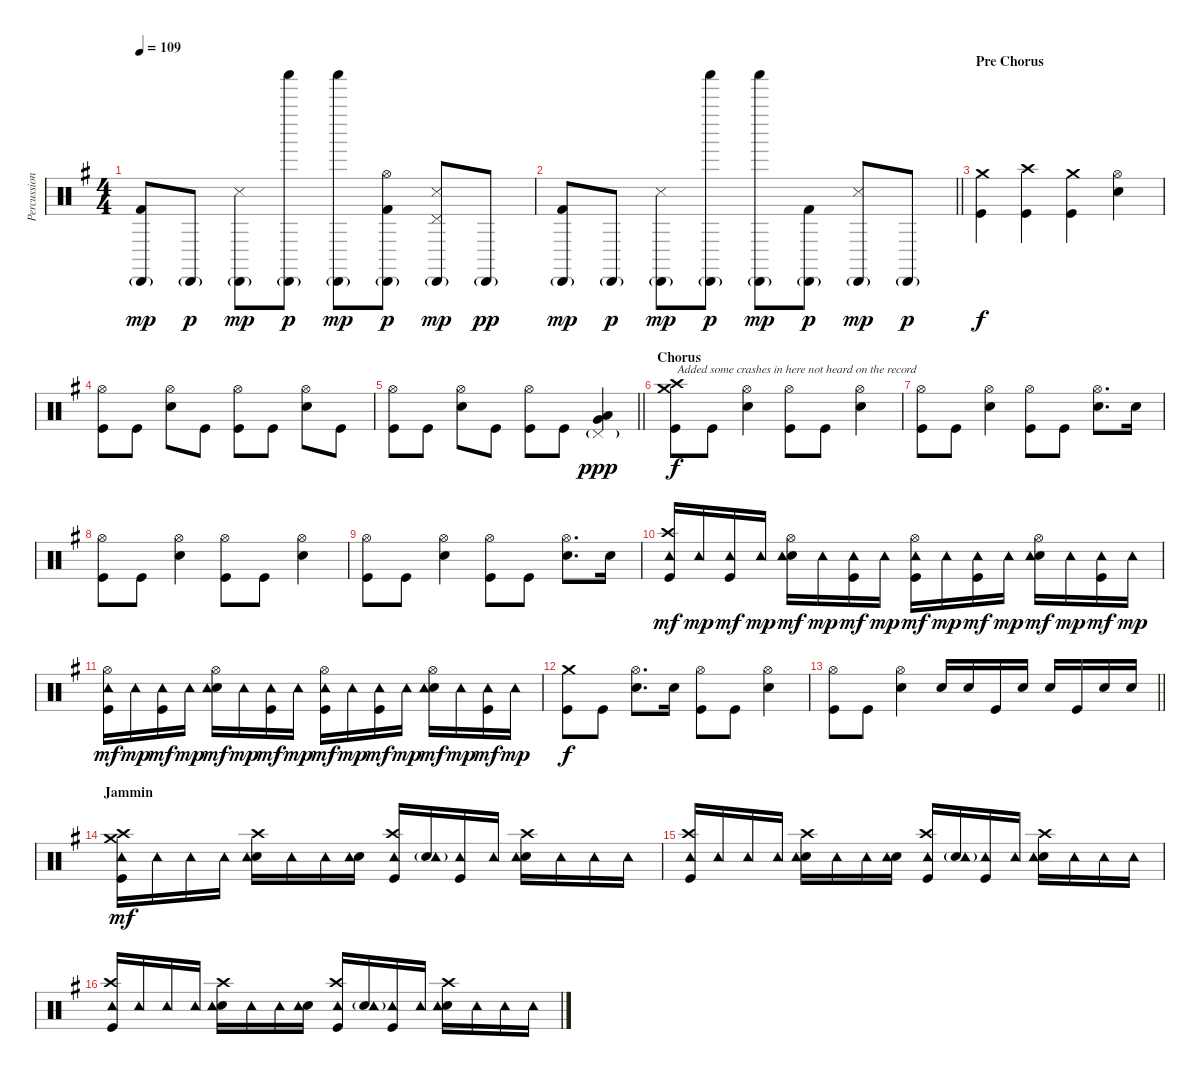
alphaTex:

\track ("Percussion" "Percussion") {instrument percussion}
\staff {score}
\articulation defaults
\ts (4 4)
\tempo 109
\clef neutral
\ks g
("Cabasa (hit)"{g} "Kick (hit) 2").8{dy mp} "Cabasa (hit)"{g}.8{dy p} ("Snare (side stick) 3" "Cabasa (hit)"{g}).8{dy mp} ("Shaker (hit)" "Cabasa (hit)"{g}).8{dy p} ("Shaker (hit)" "Cabasa (hit)"{g}).8{dy mp} ("Hi-Hat (open)" "Cabasa (hit)"{g} "Kick (hit) 2").8{dy p} ("Snare (side stick) 3" "Pedal Hi-Hat (hit)" "Cabasa (hit)"{g}).8{dy mp} "Cabasa (hit)"{g}.8{dy pp} |
\barLineRight lightlight
("Cabasa (hit)"{g} "Kick (hit) 2").8{dy mp} "Cabasa (hit)"{g}.8{dy p} ("Snare (side stick) 3" "Cabasa (hit)"{g}).8{dy mp} ("Shaker (hit)" "Cabasa (hit)"{g}).8{dy p} ("Shaker (hit)" "Cabasa (hit)"{g}).8{dy mp} ("Cabasa (hit)"{g} "Kick (hit) 2").8{dy p} ("Snare (side stick) 3" "Cabasa (hit)"{g}).8{dy mp} "Cabasa (hit)"{g}.8{dy p} |
\section ("" "Pre Chorus")
("Crash medium (hit)" "Kick (hit)").4{dy f} ("Crash high (hit)" "Kick (hit)").4 ("Crash medium (hit)" "Kick (hit)").4 ("Hi-Hat (open)" "Electric Snare (hit)").4 |
("Hi-Hat (open)" "Kick (hit)").8 "Kick (hit)".8 ("Hi-Hat (open)" "Electric Snare (hit)").8 "Kick (hit)".8 ("Hi-Hat (open)" "Kick (hit)").8 "Kick (hit)".8 ("Hi-Hat (open)" "Electric Snare (hit)").8 "Kick (hit)".8 |
\barLineRight lightlight
("Hi-Hat (open)" "Kick (hit)").8 "Kick (hit)".8 ("Hi-Hat (open)" "Electric Snare (hit)").8 "Kick (hit)".8 ("Hi-Hat (open)" "Kick (hit)").8 "Kick (hit)".8 ("Pedal Hi-Hat (hit)"{g} "Low Tom (hit)" "Very Low Tom (hit)").4{dy ppp} |
\section ("" "Chorus")
("Crash high (hit)" "Crash medium (hit)" "Kick (hit)").8{txt "Added some crashes in here not heard on the record" dy f} "Kick (hit)".8 ("Hi-Hat (open)" "Electric Snare (hit)").4 ("Hi-Hat (open)" "Kick (hit)").8 "Kick (hit)".8 ("Hi-Hat (open)" "Electric Snare (hit)").4 |
("Hi-Hat (open)" "Kick (hit)").8 "Kick (hit)".8 ("Hi-Hat (open)" "Electric Snare (hit)").4 ("Hi-Hat (open)" "Kick (hit)").8 "Kick (hit)".8 ("Hi-Hat (open)" "Electric Snare (hit)").8{d} "Electric Snare (hit)".16 |
("Hi-Hat (open)" "Kick (hit)").8 "Kick (hit)".8 ("Hi-Hat (open)" "Electric Snare (hit)").4 ("Hi-Hat (open)" "Kick (hit)").8 "Kick (hit)".8 ("Hi-Hat (open)" "Electric Snare (hit)").4 |
("Hi-Hat (open)" "Kick (hit)").8 "Kick (hit)".8 ("Hi-Hat (open)" "Electric Snare (hit)").4 ("Hi-Hat (open)" "Kick (hit)").8 "Kick (hit)".8 ("Hi-Hat (open)" "Electric Snare (hit)").8{d} "Electric Snare (hit)".16 |
("Crash high (hit)" "Tambourine (hit)" "Kick (hit)").16{dy mf} "Tambourine (hit)".16{dy mp} ("Tambourine (hit)" "Kick (hit)").16{dy mf} "Tambourine (hit)".16{dy mp} ("Hi-Hat (open)" "Electric Snare (hit)" "Tambourine (hit)").16{dy mf} "Tambourine (hit)".16{dy mp} ("Tambourine (hit)" "Kick (hit)").16{dy mf} "Tambourine (hit)".16{dy mp} ("Hi-Hat (open)" "Tambourine (hit)" "Kick (hit)").16{dy mf} "Tambourine (hit)".16{dy mp} ("Tambourine (hit)" "Kick (hit)").16{dy mf} "Tambourine (hit)".16{dy mp} ("Hi-Hat (open)" "Electric Snare (hit)" "Tambourine (hit)").16{dy mf} "Tambourine (hit)".16{dy mp} ("Tambourine (hit)" "Kick (hit)").16{dy mf} "Tambourine (hit)".16{dy mp} |
("Hi-Hat (open)" "Tambourine (hit)" "Kick (hit)").16{dy mf} "Tambourine (hit)".16{dy mp} ("Tambourine (hit)" "Kick (hit)").16{dy mf} "Tambourine (hit)".16{dy mp} ("Hi-Hat (open)" "Electric Snare (hit)" "Tambourine (hit)").16{dy mf} "Tambourine (hit)".16{dy mp} ("Tambourine (hit)" "Kick (hit)").16{dy mf} "Tambourine (hit)".16{dy mp} ("Hi-Hat (open)" "Tambourine (hit)" "Kick (hit)").16{dy mf} "Tambourine (hit)".16{dy mp} ("Tambourine (hit)" "Kick (hit)").16{dy mf} "Tambourine (hit)".16{dy mp} ("Hi-Hat (open)" "Electric Snare (hit)" "Tambourine (hit)").16{dy mf} "Tambourine (hit)".16{dy mp} ("Tambourine (hit)" "Kick (hit)").16{dy mf} "Tambourine (hit)".16{dy mp} |
("Crash medium (hit)" "Kick (hit)").8{dy f} "Kick (hit)".8 ("Hi-Hat (open)" "Electric Snare (hit)").8{d} "Electric Snare (hit)".16 ("Hi-Hat (open)" "Kick (hit)").8 "Kick (hit)".8 ("Hi-Hat (open)" "Electric Snare (hit)").4 |
\barLineRight lightlight
("Hi-Hat (open)" "Kick (hit)").8 "Kick (hit)".8 ("Hi-Hat (open)" "Electric Snare (hit)").4 "Electric Snare (hit)".16 "Electric Snare (hit)".16 "Kick (hit)".16 "Electric Snare (hit)".16 "Electric Snare (hit)".16 "Kick (hit)".16 "Electric Snare (hit)".16 "Electric Snare (hit)".16 |
\section ("" "Jammin")
("Crash medium (hit)" "Crash high (hit)" "Tambourine (hit)" "Kick (hit)").16{dy mf} "Tambourine (hit)".16 "Tambourine (hit)".16 "Tambourine (hit)".16 ("Crash high (hit)" "Electric Snare (hit)" "Tambourine (hit)").16 "Tambourine (hit)".16 "Tambourine (hit)".16 ("Electric Snare (hit)" "Tambourine (hit)").16 ("Crash high (hit)" "Tambourine (hit)" "Kick (hit)").16 ("Electric Snare (hit)"{g} "Tambourine (hit)").16 ("Tambourine (hit)" "Kick (hit)").16 "Tambourine (hit)".16 ("Crash high (hit)" "Electric Snare (hit)" "Tambourine (hit)").16 "Tambourine (hit)".16 "Tambourine (hit)".16 "Tambourine (hit)".16 |
("Crash high (hit)" "Tambourine (hit)" "Kick (hit)").16 "Tambourine (hit)".16 "Tambourine (hit)".16 "Tambourine (hit)".16 ("Crash high (hit)" "Electric Snare (hit)" "Tambourine (hit)").16 "Tambourine (hit)".16 "Tambourine (hit)".16 ("Electric Snare (hit)" "Tambourine (hit)").16 ("Crash high (hit)" "Tambourine (hit)" "Kick (hit)").16 ("Electric Snare (hit)"{g} "Tambourine (hit)").16 ("Tambourine (hit)" "Kick (hit)").16 "Tambourine (hit)".16 ("Crash high (hit)" "Electric Snare (hit)" "Tambourine (hit)").16 "Tambourine (hit)".16 "Tambourine (hit)".16 "Tambourine (hit)".16 |
("Crash high (hit)" "Tambourine (hit)" "Kick (hit)").16 "Tambourine (hit)".16 "Tambourine (hit)".16 "Tambourine (hit)".16 ("Crash high (hit)" "Electric Snare (hit)" "Tambourine (hit)").16 "Tambourine (hit)".16 "Tambourine (hit)".16 ("Electric Snare (hit)" "Tambourine (hit)").16 ("Crash high (hit)" "Tambourine (hit)" "Kick (hit)").16 ("Electric Snare (hit)"{g} "Tambourine (hit)").16 ("Tambourine (hit)" "Kick (hit)").16 "Tambourine (hit)".16 ("Crash high (hit)" "Electric Snare (hit)" "Tambourine (hit)").16 "Tambourine (hit)".16 "Tambourine (hit)".16 "Tambourine (hit)".16
